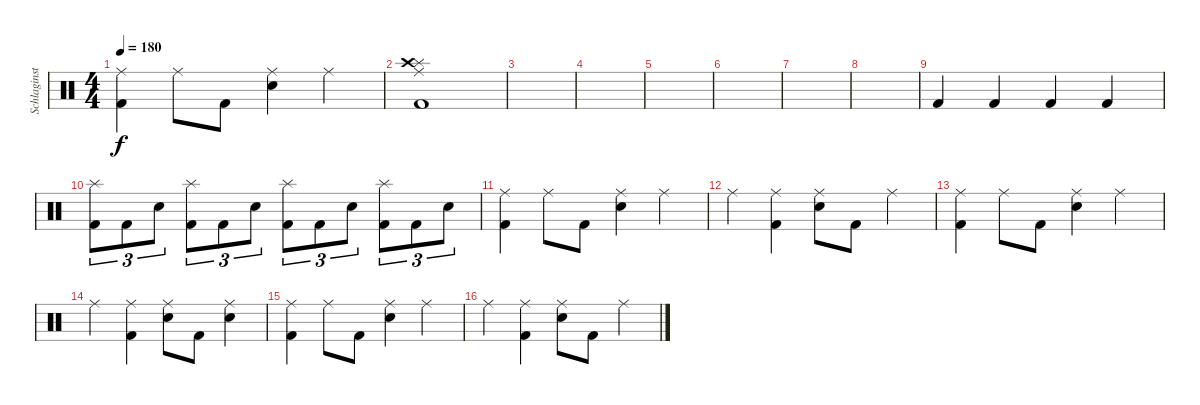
\track ("Schlaginstrumente - Auswahl" "Schlaginst") {instrument percussion}
\staff {score}
\articulation defaults
\ts (4 4)
\tempo 180
\clef neutral
\ks c
("Ride (middle)" "Kick (hit) 2").4{dy f} "Ride (middle)".8 "Kick (hit) 2".8 ("Ride (middle)" "Snare (hit) 2").4 "Ride (middle)".4 |
("Ride (middle)" "Splash (hit)" "Crash high (hit)" "Kick (hit) 2").1 |
|
|
|
|
|
|
"Kick (hit) 2".4 "Kick (hit) 2".4 "Kick (hit) 2".4 "Kick (hit) 2".4 |
("Splash (hit)" "Kick (hit) 2").8{tu (3 2)} "Kick (hit) 2".8{tu (3 2)} "Snare (hit) 2".8{tu (3 2)} ("Splash (hit)" "Kick (hit) 2").8{tu (3 2)} "Kick (hit) 2".8{tu (3 2)} "Snare (hit) 2".8{tu (3 2)} ("Splash (hit)" "Kick (hit) 2").8{tu (3 2)} "Kick (hit) 2".8{tu (3 2)} "Snare (hit) 2".8{tu (3 2)} ("Splash (hit)" "Kick (hit) 2").8{tu (3 2)} "Kick (hit) 2".8{tu (3 2)} "Snare (hit) 2".8{tu (3 2)} |
("Ride (middle)" "Kick (hit) 2").4 "Ride (middle)".8 "Kick (hit) 2".8 ("Ride (middle)" "Snare (hit) 2").4 "Ride (middle)".4 |
"Ride (middle)".4 ("Ride (middle)" "Kick (hit) 2").4 ("Ride (middle)" "Snare (hit) 2").8 "Kick (hit) 2".8 "Ride (middle)".4 |
("Ride (middle)" "Kick (hit) 2").4 "Ride (middle)".8 "Kick (hit) 2".8 ("Ride (middle)" "Snare (hit) 2").4 "Ride (middle)".4 |
"Ride (middle)".4 ("Ride (middle)" "Kick (hit) 2").4 ("Ride (middle)" "Snare (hit) 2").8 "Kick (hit) 2".8 ("Ride (middle)" "Snare (hit) 2").4 |
("Ride (middle)" "Kick (hit) 2").4 "Ride (middle)".8 "Kick (hit) 2".8 ("Ride (middle)" "Snare (hit) 2").4 "Ride (middle)".4 |
"Ride (middle)".4 ("Ride (middle)" "Kick (hit) 2").4 ("Ride (middle)" "Snare (hit) 2").8 "Kick (hit) 2".8 "Ride (middle)".4
